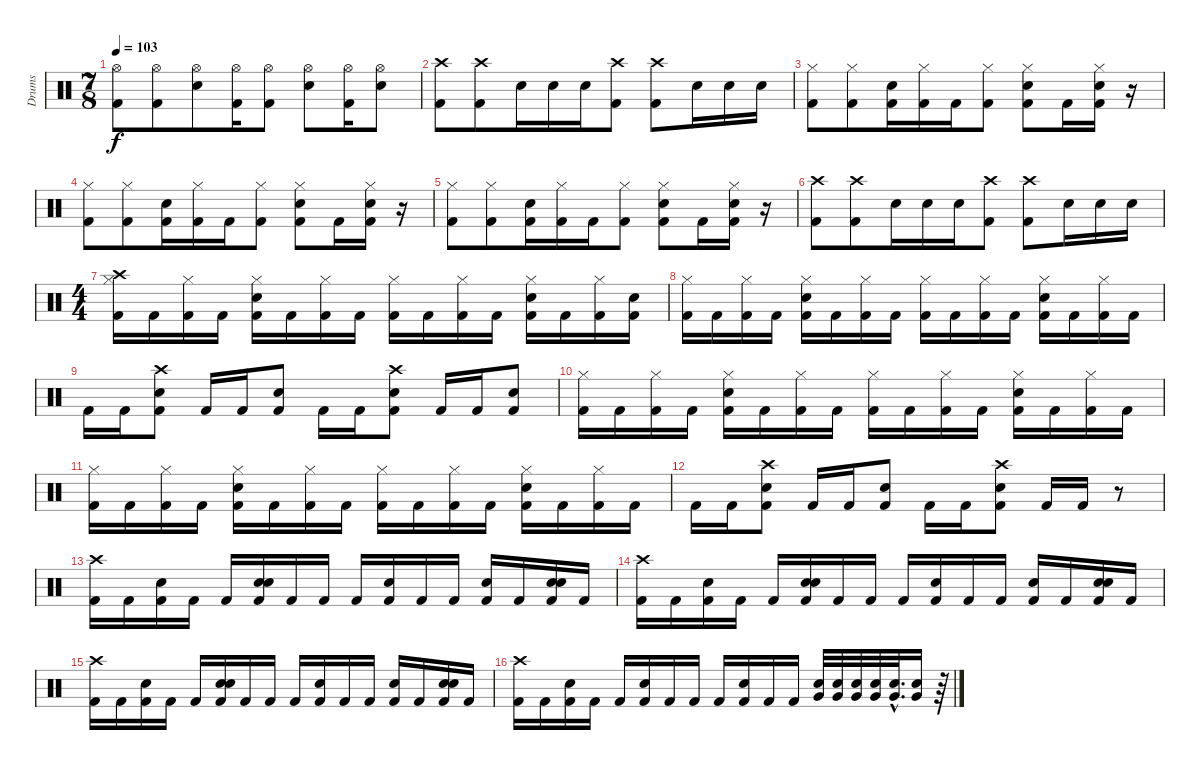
\track ("Drums" "Drums") {instrument percussion}
\staff {score}
\articulation defaults
\ts (7 8)
\tempo 103
\clef neutral
\ks c
("Hi-Hat (open)" "Kick (hit) 2").8{dy f} ("Hi-Hat (open)" "Kick (hit) 2").8 ("Hi-Hat (open)" "Electric Snare (hit)").8 ("Hi-Hat (open)" "Kick (hit) 2").16 ("Hi-Hat (open)" "Kick (hit) 2").8 ("Hi-Hat (open)" "Electric Snare (hit)").8 ("Hi-Hat (open)" "Kick (hit) 2").16 ("Hi-Hat (open)" "Electric Snare (hit)").8 |
("Crash high (hit)" "Kick (hit) 2").8 ("Crash high (hit)" "Kick (hit) 2").8 "Electric Snare (hit)".16 "Electric Snare (hit)".16 "Electric Snare (hit)".16 ("Crash high (hit)" "Kick (hit) 2").8 ("Crash high (hit)" "Kick (hit) 2").8 "Electric Snare (hit)".16 "Electric Snare (hit)".16 "Electric Snare (hit)".16 |
("Hi-Hat (closed)" "Kick (hit) 2").8 ("Hi-Hat (closed)" "Kick (hit) 2").8 ("Electric Snare (hit)" "Kick (hit) 2").16 ("Hi-Hat (closed)" "Kick (hit) 2").16 "Kick (hit) 2".16 ("Hi-Hat (closed)" "Kick (hit) 2").8 ("Hi-Hat (closed)" "Electric Snare (hit)" "Kick (hit) 2").8 "Kick (hit) 2".16 ("Hi-Hat (closed)" "Electric Snare (hit)" "Kick (hit) 2").16 r.16 |
("Hi-Hat (closed)" "Kick (hit) 2").8 ("Hi-Hat (closed)" "Kick (hit) 2").8 ("Electric Snare (hit)" "Kick (hit) 2").16 ("Hi-Hat (closed)" "Kick (hit) 2").16 "Kick (hit) 2".16 ("Hi-Hat (closed)" "Kick (hit) 2").8 ("Hi-Hat (closed)" "Electric Snare (hit)" "Kick (hit) 2").8 "Kick (hit) 2".16 ("Hi-Hat (closed)" "Electric Snare (hit)" "Kick (hit) 2").16 r.16 |
("Hi-Hat (closed)" "Kick (hit) 2").8 ("Hi-Hat (closed)" "Kick (hit) 2").8 ("Electric Snare (hit)" "Kick (hit) 2").16 ("Hi-Hat (closed)" "Kick (hit) 2").16 "Kick (hit) 2".16 ("Hi-Hat (closed)" "Kick (hit) 2").8 ("Hi-Hat (closed)" "Electric Snare (hit)" "Kick (hit) 2").8 "Kick (hit) 2".16 ("Hi-Hat (closed)" "Electric Snare (hit)" "Kick (hit) 2").16 r.16 |
("Crash high (hit)" "Kick (hit) 2").8 ("Crash high (hit)" "Kick (hit) 2").8 "Electric Snare (hit)".16 "Electric Snare (hit)".16 "Electric Snare (hit)".16 ("Crash high (hit)" "Kick (hit) 2").8 ("Crash high (hit)" "Kick (hit) 2").8 "Electric Snare (hit)".16 "Electric Snare (hit)".16 "Electric Snare (hit)".16 |
\ts (4 4)
("Hi-Hat (closed)" "Crash high (hit)" "Kick (hit) 2").16 "Kick (hit) 2".16 ("Hi-Hat (closed)" "Kick (hit) 2").16 "Kick (hit) 2".16 ("Hi-Hat (closed)" "Electric Snare (hit)" "Kick (hit) 2").16 "Kick (hit) 2".16 ("Hi-Hat (closed)" "Kick (hit) 2").16 "Kick (hit) 2".16 ("Hi-Hat (closed)" "Kick (hit) 2").16 "Kick (hit) 2".16 ("Hi-Hat (closed)" "Kick (hit) 2").16 "Kick (hit) 2".16 ("Hi-Hat (closed)" "Electric Snare (hit)" "Kick (hit) 2").16 "Kick (hit) 2".16 ("Hi-Hat (closed)" "Kick (hit) 2").16 ("Electric Snare (hit)" "Kick (hit) 2").16 |
("Hi-Hat (closed)" "Kick (hit) 2").16 "Kick (hit) 2".16 ("Hi-Hat (closed)" "Kick (hit) 2").16 "Kick (hit) 2".16 ("Hi-Hat (closed)" "Electric Snare (hit)" "Kick (hit) 2").16 "Kick (hit) 2".16 ("Hi-Hat (closed)" "Kick (hit) 2").16 "Kick (hit) 2".16 ("Hi-Hat (closed)" "Kick (hit) 2").16 "Kick (hit) 2".16 ("Hi-Hat (closed)" "Kick (hit) 2").16 "Kick (hit) 2".16 ("Hi-Hat (closed)" "Electric Snare (hit)" "Kick (hit) 2").16 "Kick (hit) 2".16 ("Hi-Hat (closed)" "Kick (hit) 2").16 "Kick (hit) 2".16 |
"Kick (hit) 2".16 "Kick (hit) 2".16 ("Crash high (hit)" "Electric Snare (hit)" "Kick (hit) 2").8 "Kick (hit) 2".16 "Kick (hit) 2".16 ("Electric Snare (hit)" "Kick (hit) 2").8 "Kick (hit) 2".16 "Kick (hit) 2".16 ("Crash high (hit)" "Electric Snare (hit)" "Kick (hit) 2").8 "Kick (hit) 2".16 "Kick (hit) 2".16 ("Electric Snare (hit)" "Kick (hit) 2").8 |
("Hi-Hat (closed)" "Kick (hit) 2").16 "Kick (hit) 2".16 ("Hi-Hat (closed)" "Kick (hit) 2").16 "Kick (hit) 2".16 ("Hi-Hat (closed)" "Electric Snare (hit)" "Kick (hit) 2").16 "Kick (hit) 2".16 ("Hi-Hat (closed)" "Kick (hit) 2").16 "Kick (hit) 2".16 ("Hi-Hat (closed)" "Kick (hit) 2").16 "Kick (hit) 2".16 ("Hi-Hat (closed)" "Kick (hit) 2").16 "Kick (hit) 2".16 ("Hi-Hat (closed)" "Electric Snare (hit)" "Kick (hit) 2").16 "Kick (hit) 2".16 ("Hi-Hat (closed)" "Kick (hit) 2").16 "Kick (hit) 2".16 |
("Hi-Hat (closed)" "Kick (hit) 2").16 "Kick (hit) 2".16 ("Hi-Hat (closed)" "Kick (hit) 2").16 "Kick (hit) 2".16 ("Hi-Hat (closed)" "Electric Snare (hit)" "Kick (hit) 2").16 "Kick (hit) 2".16 ("Hi-Hat (closed)" "Kick (hit) 2").16 "Kick (hit) 2".16 ("Hi-Hat (closed)" "Kick (hit) 2").16 "Kick (hit) 2".16 ("Hi-Hat (closed)" "Kick (hit) 2").16 "Kick (hit) 2".16 ("Hi-Hat (closed)" "Electric Snare (hit)" "Kick (hit) 2").16 "Kick (hit) 2".16 ("Hi-Hat (closed)" "Kick (hit) 2").16 "Kick (hit) 2".16 |
"Kick (hit) 2".16 "Kick (hit) 2".16 ("Crash high (hit)" "Electric Snare (hit)" "Kick (hit) 2").8 "Kick (hit) 2".16 "Kick (hit) 2".16 ("Electric Snare (hit)" "Kick (hit) 2").8 "Kick (hit) 2".16 "Kick (hit) 2".16 ("Crash high (hit)" "Electric Snare (hit)" "Kick (hit) 2").8 "Kick (hit) 2".16 "Kick (hit) 2".16 r.8 |
("Crash high (hit)" "Kick (hit) 2").16 "Kick (hit) 2".16 ("Snare (hit) 2" "Kick (hit) 2").16 "Kick (hit) 2".16 "Kick (hit) 2".16 ("Snare (hit) 2" "Electric Snare (hit)" "Kick (hit) 2").16 "Kick (hit) 2".16 "Kick (hit) 2".16 "Kick (hit) 2".16 ("Snare (hit) 2" "Kick (hit) 2").16 "Kick (hit) 2".16 "Kick (hit) 2".16 ("Snare (hit) 2" "Kick (hit) 2").16 "Kick (hit) 2".16 ("Snare (hit) 2" "Electric Snare (hit)" "Kick (hit) 2").16 "Kick (hit) 2".16 |
("Crash high (hit)" "Kick (hit) 2").16 "Kick (hit) 2".16 ("Snare (hit) 2" "Kick (hit) 2").16 "Kick (hit) 2".16 "Kick (hit) 2".16 ("Electric Snare (hit)" "Snare (hit) 2" "Kick (hit) 2").16 "Kick (hit) 2".16 "Kick (hit) 2".16 "Kick (hit) 2".16 ("Snare (hit) 2" "Kick (hit) 2").16 "Kick (hit) 2".16 "Kick (hit) 2".16 ("Snare (hit) 2" "Kick (hit) 2").16 "Kick (hit) 2".16 ("Electric Snare (hit)" "Snare (hit) 2" "Kick (hit) 2").16 "Kick (hit) 2".16 |
("Crash high (hit)" "Kick (hit) 2").16 "Kick (hit) 2".16 ("Snare (hit) 2" "Kick (hit) 2").16 "Kick (hit) 2".16 "Kick (hit) 2".16 ("Electric Snare (hit)" "Snare (hit) 2" "Kick (hit) 2").16 "Kick (hit) 2".16 "Kick (hit) 2".16 "Kick (hit) 2".16 ("Snare (hit) 2" "Kick (hit) 2").16 "Kick (hit) 2".16 "Kick (hit) 2".16 ("Snare (hit) 2" "Kick (hit) 2").16 "Kick (hit) 2".16 ("Electric Snare (hit)" "Snare (hit) 2" "Kick (hit) 2").16 "Kick (hit) 2".16 |
("Crash high (hit)" "Kick (hit) 2").16 "Kick (hit) 2".16 ("Electric Snare (hit)" "Kick (hit) 2").16 "Kick (hit) 2".16 "Kick (hit) 2".16 ("Electric Snare (hit)" "Kick (hit) 2").16 "Kick (hit) 2".16 "Kick (hit) 2".16 "Kick (hit) 2".16 ("Electric Snare (hit)" "Kick (hit) 2").16 "Kick (hit) 2".16 "Kick (hit) 2".16 ("Electric Snare (hit)" "Very Low Tom (hit)").32 ("Electric Snare (hit)" "Very Low Tom (hit)").32 ("Electric Snare (hit)" "Very Low Tom (hit)").32 ("Electric Snare (hit)" "Very Low Tom (hit)").32 ("Electric Snare (hit)"{hac} "Very Low Tom (hit)"{hac}).32{d} ("Electric Snare (hit)" "Very Low Tom (hit)").16 r.64
